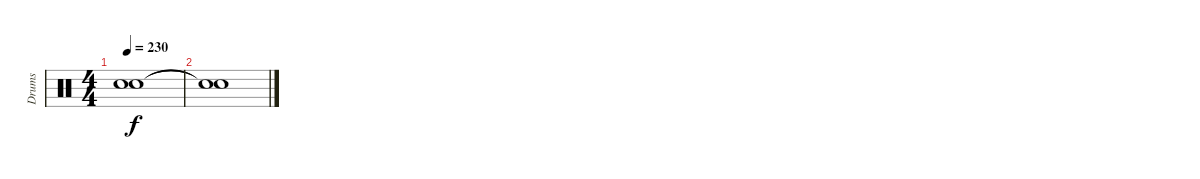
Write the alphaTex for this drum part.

\track ("Drums" "Drums") {instrument percussion}
\staff {score}
\articulation defaults
\ts (4 4)
\tempo 230
\clef neutral
\ks c
("Snare (hit)"{t} "Snare (hit)"{t}).1{dy f} |
("Snare (hit)"{t} "Snare (hit)"{t}).1
